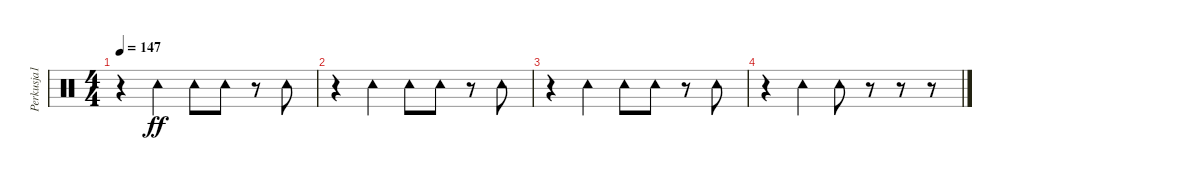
\track ("Perkusja1" "Perkusja1") {instrument percussion}
\staff {score}
\articulation defaults
\ts (4 4)
\tempo 147
\clef neutral
\ks c
r.4{dy ff volume 5} "Tambourine (hit)".4 "Tambourine (hit)".8 "Tambourine (hit)".8 r.8 "Tambourine (hit)".8 |
r.4 "Tambourine (hit)".4 "Tambourine (hit)".8 "Tambourine (hit)".8 r.8 "Tambourine (hit)".8 |
r.4 "Tambourine (hit)".4 "Tambourine (hit)".8 "Tambourine (hit)".8 r.8 "Tambourine (hit)".8 |
r.4 "Tambourine (hit)".4 "Tambourine (hit)".8 r.8 r.8 r.8
